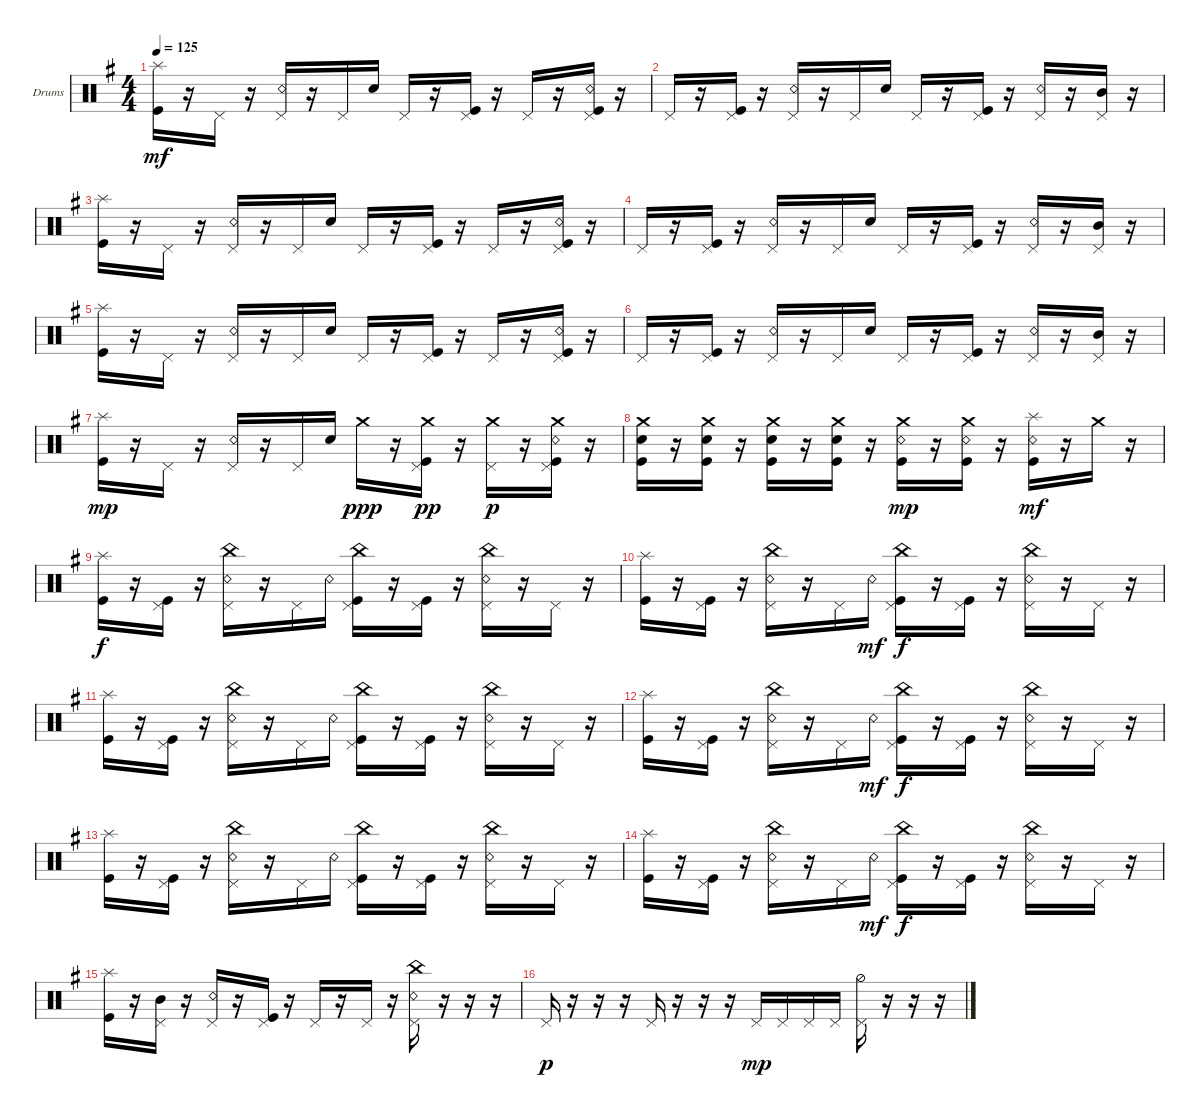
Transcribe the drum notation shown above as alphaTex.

\bracketExtendMode groupsimilarinstruments
\firstSystemTrackNameOrientation horizontal
\otherSystemsTrackNameOrientation horizontal
\track ("Drumkit" "Drums") {instrument percussion}
\staff {score}
\articulation defaults
\ts (4 4)
\tempo 125
\clef neutral
\ks g
("Kick (hit)" "Splash (hit)").16{dy mf} r.16 "Pedal Hi-Hat (hit)".16 r.16 ("Pedal Hi-Hat (hit)" "Snare (rim shot)").16 r.16 "Pedal Hi-Hat (hit)".16 "Snare (hit) 2".16 "Pedal Hi-Hat (hit)".16 r.16 ("Pedal Hi-Hat (hit)" "Kick (hit)").16 r.16 "Pedal Hi-Hat (hit)".16 r.16 ("Pedal Hi-Hat (hit)" "Snare (rim shot)" "Kick (hit)").16 r.16 |
"Pedal Hi-Hat (hit)".16 r.16 ("Pedal Hi-Hat (hit)" "Kick (hit)").16 r.16 ("Pedal Hi-Hat (hit)" "Snare (rim shot)").16 r.16 "Pedal Hi-Hat (hit)".16 "Snare (hit) 2".16 "Pedal Hi-Hat (hit)".16 r.16 ("Pedal Hi-Hat (hit)" "Kick (hit)").16 r.16 ("Pedal Hi-Hat (hit)" "Snare (rim shot)").16 r.16 ("Pedal Hi-Hat (hit)" "Mid Tom (hit)").16 r.16 |
("Kick (hit)" "Splash (hit)").16 r.16 "Pedal Hi-Hat (hit)".16 r.16 ("Pedal Hi-Hat (hit)" "Snare (rim shot)").16 r.16 "Pedal Hi-Hat (hit)".16 "Snare (hit) 2".16 "Pedal Hi-Hat (hit)".16 r.16 ("Pedal Hi-Hat (hit)" "Kick (hit)").16 r.16 "Pedal Hi-Hat (hit)".16 r.16 ("Pedal Hi-Hat (hit)" "Snare (rim shot)" "Kick (hit)").16 r.16 |
"Pedal Hi-Hat (hit)".16 r.16 ("Pedal Hi-Hat (hit)" "Kick (hit)").16 r.16 ("Pedal Hi-Hat (hit)" "Snare (rim shot)").16 r.16 "Pedal Hi-Hat (hit)".16 "Snare (hit) 2".16 "Pedal Hi-Hat (hit)".16 r.16 ("Pedal Hi-Hat (hit)" "Kick (hit)").16 r.16 ("Pedal Hi-Hat (hit)" "Snare (rim shot)").16 r.16 ("Pedal Hi-Hat (hit)" "Mid Tom (hit)").16 r.16 |
("Kick (hit)" "Splash (hit)").16 r.16 "Pedal Hi-Hat (hit)".16 r.16 ("Pedal Hi-Hat (hit)" "Snare (rim shot)").16 r.16 "Pedal Hi-Hat (hit)".16 "Snare (hit) 2".16 "Pedal Hi-Hat (hit)".16 r.16 ("Pedal Hi-Hat (hit)" "Kick (hit)").16 r.16 "Pedal Hi-Hat (hit)".16 r.16 ("Pedal Hi-Hat (hit)" "Snare (rim shot)" "Kick (hit)").16 r.16 |
"Pedal Hi-Hat (hit)".16 r.16 ("Pedal Hi-Hat (hit)" "Kick (hit)").16 r.16 ("Pedal Hi-Hat (hit)" "Snare (rim shot)").16 r.16 "Pedal Hi-Hat (hit)".16 "Snare (hit) 2".16 "Pedal Hi-Hat (hit)".16 r.16 ("Pedal Hi-Hat (hit)" "Kick (hit)").16 r.16 ("Pedal Hi-Hat (hit)" "Snare (rim shot)").16 r.16 ("Pedal Hi-Hat (hit)" "Mid Tom (hit)").16 r.16 |
("Kick (hit)" "Splash (hit)").16{dy mp} r.16 "Pedal Hi-Hat (hit)".16 r.16 ("Pedal Hi-Hat (hit)" "Snare (rim shot)").16 r.16 "Pedal Hi-Hat (hit)".16 "Snare (hit) 2".16 "Crash medium (hit)".16{dy ppp} r.16 ("Pedal Hi-Hat (hit)" "Kick (hit)" "Crash medium (hit)").16{dy pp} r.16 ("Pedal Hi-Hat (hit)" "Crash medium (hit)").16{dy p} r.16 ("Pedal Hi-Hat (hit)" "Snare (rim shot)" "Kick (hit)" "Crash medium (hit)").16 r.16 |
("Crash medium (hit)" "Kick (hit)" "Snare (hit) 2").16 r.16 ("Crash medium (hit)" "Kick (hit)" "Snare (hit) 2").16 r.16 ("Crash medium (hit)" "Kick (hit)" "Snare (hit) 2").16 r.16 ("Crash medium (hit)" "Kick (hit)" "Snare (hit) 2").16 r.16 ("Crash medium (hit)" "Kick (hit)" "Snare (rim shot)").16{dy mp} r.16 ("Crash medium (hit)" "Kick (hit)" "Snare (rim shot)").16 r.16 ("Kick (hit)" "Snare (rim shot)" "Splash (hit)").16{dy mf} r.16 "Crash medium (hit)".16 r.16 |
("Kick (hit)" "Splash (hit)").16{dy f} r.16 ("Pedal Hi-Hat (hit)" "Kick (hit)").16 r.16 ("Pedal Hi-Hat (hit)" "Snare (rim shot)" "China (hit)").16 r.16 "Pedal Hi-Hat (hit)".16 "Snare (rim shot)".16 ("Pedal Hi-Hat (hit)" "China (hit)" "Kick (hit)").16 r.16 ("Pedal Hi-Hat (hit)" "Kick (hit)").16 r.16 ("Pedal Hi-Hat (hit)" "China (hit)" "Snare (rim shot)").16 r.16 "Pedal Hi-Hat (hit)".16 r.16 |
("Kick (hit)" "Splash (hit)").16 r.16 ("Pedal Hi-Hat (hit)" "Kick (hit)").16 r.16 ("Pedal Hi-Hat (hit)" "Snare (rim shot)" "China (hit)").16 r.16 "Pedal Hi-Hat (hit)".16 "Snare (rim shot)".16{dy mf} ("Pedal Hi-Hat (hit)" "China (hit)" "Kick (hit)").16{dy f} r.16 ("Pedal Hi-Hat (hit)" "Kick (hit)").16 r.16 ("Pedal Hi-Hat (hit)" "China (hit)" "Snare (rim shot)").16 r.16 "Pedal Hi-Hat (hit)".16 r.16 |
("Kick (hit)" "Splash (hit)").16 r.16 ("Pedal Hi-Hat (hit)" "Kick (hit)").16 r.16 ("Pedal Hi-Hat (hit)" "Snare (rim shot)" "China (hit)").16 r.16 "Pedal Hi-Hat (hit)".16 "Snare (rim shot)".16 ("Pedal Hi-Hat (hit)" "China (hit)" "Kick (hit)").16 r.16 ("Pedal Hi-Hat (hit)" "Kick (hit)").16 r.16 ("Pedal Hi-Hat (hit)" "China (hit)" "Snare (rim shot)").16 r.16 "Pedal Hi-Hat (hit)".16 r.16 |
("Kick (hit)" "Splash (hit)").16 r.16 ("Pedal Hi-Hat (hit)" "Kick (hit)").16 r.16 ("Pedal Hi-Hat (hit)" "Snare (rim shot)" "China (hit)").16 r.16 "Pedal Hi-Hat (hit)".16 "Snare (rim shot)".16{dy mf} ("Pedal Hi-Hat (hit)" "China (hit)" "Kick (hit)").16{dy f} r.16 ("Pedal Hi-Hat (hit)" "Kick (hit)").16 r.16 ("Pedal Hi-Hat (hit)" "China (hit)" "Snare (rim shot)").16 r.16 "Pedal Hi-Hat (hit)".16 r.16 |
("Kick (hit)" "Splash (hit)").16 r.16 ("Pedal Hi-Hat (hit)" "Kick (hit)").16 r.16 ("Pedal Hi-Hat (hit)" "Snare (rim shot)" "China (hit)").16 r.16 "Pedal Hi-Hat (hit)".16 "Snare (rim shot)".16 ("Pedal Hi-Hat (hit)" "China (hit)" "Kick (hit)").16 r.16 ("Pedal Hi-Hat (hit)" "Kick (hit)").16 r.16 ("Pedal Hi-Hat (hit)" "China (hit)" "Snare (rim shot)").16 r.16 "Pedal Hi-Hat (hit)".16 r.16 |
("Kick (hit)" "Splash (hit)").16 r.16 ("Pedal Hi-Hat (hit)" "Kick (hit)").16 r.16 ("Pedal Hi-Hat (hit)" "Snare (rim shot)" "China (hit)").16 r.16 "Pedal Hi-Hat (hit)".16 "Snare (rim shot)".16{dy mf} ("Pedal Hi-Hat (hit)" "China (hit)" "Kick (hit)").16{dy f} r.16 ("Pedal Hi-Hat (hit)" "Kick (hit)").16 r.16 ("Pedal Hi-Hat (hit)" "China (hit)" "Snare (rim shot)").16 r.16 "Pedal Hi-Hat (hit)".16 r.16 |
("Kick (hit)" "Splash (hit)").16 r.16 ("Pedal Hi-Hat (hit)" "Mid Tom (hit)").16 r.16 ("Pedal Hi-Hat (hit)" "Snare (rim shot)").16 r.16 ("Pedal Hi-Hat (hit)" "Kick (hit)").16 r.16 "Pedal Hi-Hat (hit)".16 r.16 "Pedal Hi-Hat (hit)".16 r.16 ("Pedal Hi-Hat (hit)" "China (hit)" "Snare (rim shot)").16 r.16 r.16 r.16 |
"Pedal Hi-Hat (hit)".16{dy p} r.16 r.16 r.16 "Pedal Hi-Hat (hit)".16 r.16 r.16 r.16 "Pedal Hi-Hat (hit)".16{dy mp} "Pedal Hi-Hat (hit)".16 "Pedal Hi-Hat (hit)".16 "Pedal Hi-Hat (hit)".16 ("Pedal Hi-Hat (hit)" "Hi-Hat (half)").16 r.16 r.16 r.16
